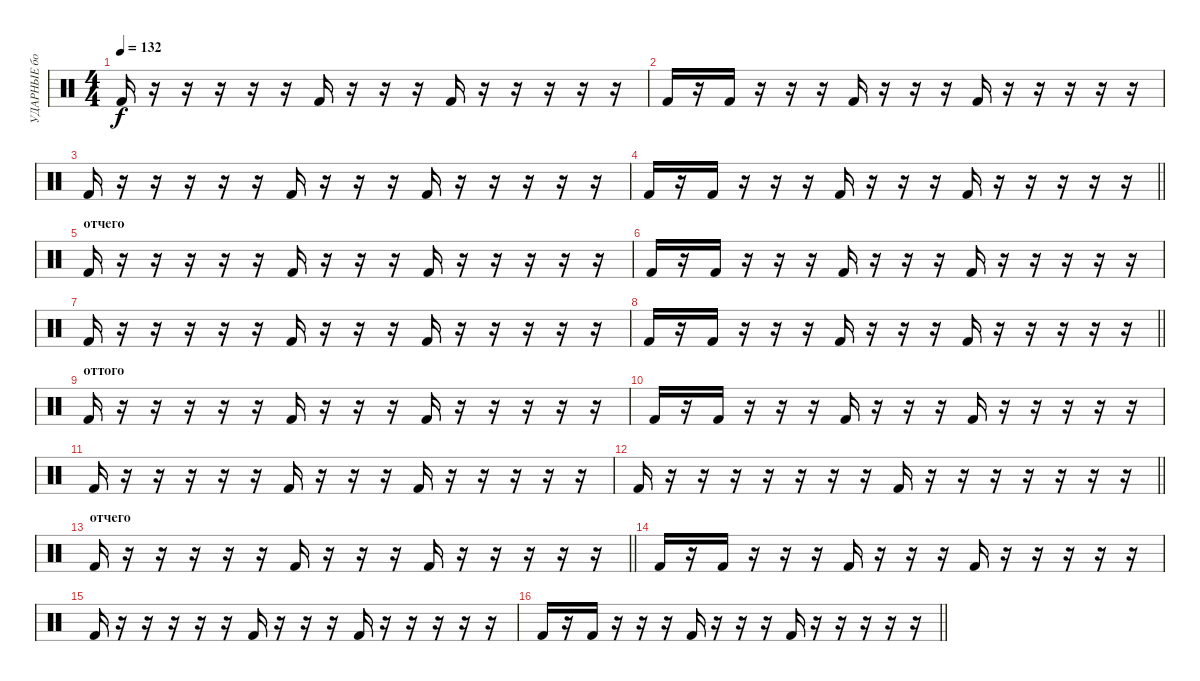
\track ("УДАРНЫЕ бочка" "УДАРНЫЕ бо") {instrument percussion}
\staff {score}
\articulation defaults
\ts (4 4)
\tempo 132
\clef neutral
\ks c "Kick (hit) 2".16{dy f}
r.16 r.16 r.16 r.16 r.16 "Kick (hit) 2".16 r.16 r.16 r.16 "Kick (hit) 2".16 r.16 r.16 r.16 r.16 r.16 |
"Kick (hit) 2".16 r.16 "Kick (hit) 2".16 r.16 r.16 r.16 "Kick (hit) 2".16 r.16 r.16 r.16 "Kick (hit) 2".16 r.16 r.16 r.16 r.16 r.16 |
"Kick (hit) 2".16 r.16 r.16 r.16 r.16 r.16 "Kick (hit) 2".16 r.16 r.16 r.16 "Kick (hit) 2".16 r.16 r.16 r.16 r.16 r.16 |
\barLineRight lightlight "Kick (hit) 2".16
r.16 "Kick (hit) 2".16 r.16 r.16 r.16 "Kick (hit) 2".16 r.16 r.16 r.16 "Kick (hit) 2".16 r.16 r.16 r.16 r.16 r.16 |
\section ("" "отчего")
"Kick (hit) 2".16 r.16 r.16 r.16 r.16 r.16 "Kick (hit) 2".16 r.16 r.16 r.16 "Kick (hit) 2".16 r.16 r.16 r.16 r.16 r.16 |
"Kick (hit) 2".16 r.16 "Kick (hit) 2".16 r.16 r.16 r.16 "Kick (hit) 2".16 r.16 r.16 r.16 "Kick (hit) 2".16 r.16 r.16 r.16 r.16 r.16 |
"Kick (hit) 2".16 r.16 r.16 r.16 r.16 r.16 "Kick (hit) 2".16 r.16 r.16 r.16 "Kick (hit) 2".16 r.16 r.16 r.16 r.16 r.16 |
\barLineRight lightlight "Kick (hit) 2".16
r.16 "Kick (hit) 2".16 r.16 r.16 r.16 "Kick (hit) 2".16 r.16 r.16 r.16 "Kick (hit) 2".16 r.16 r.16 r.16 r.16 r.16 |
\section ("" "оттого")
"Kick (hit) 2".16 r.16 r.16 r.16 r.16 r.16 "Kick (hit) 2".16 r.16 r.16 r.16 "Kick (hit) 2".16 r.16 r.16 r.16 r.16 r.16 |
"Kick (hit) 2".16 r.16 "Kick (hit) 2".16 r.16 r.16 r.16 "Kick (hit) 2".16 r.16 r.16 r.16 "Kick (hit) 2".16 r.16 r.16 r.16 r.16 r.16 |
"Kick (hit) 2".16 r.16 r.16 r.16 r.16 r.16 "Kick (hit) 2".16 r.16 r.16 r.16 "Kick (hit) 2".16 r.16 r.16 r.16 r.16 r.16 |
\barLineRight lightlight "Kick (hit) 2".16
r.16 r.16 r.16 r.16 r.16 r.16 r.16 "Kick (hit) 2".16 r.16 r.16 r.16 r.16 r.16 r.16 r.16 |
\section ("" "отчего")
\barLineRight lightlight "Kick (hit) 2".16
r.16 r.16 r.16 r.16 r.16 "Kick (hit) 2".16 r.16 r.16 r.16 "Kick (hit) 2".16 r.16 r.16 r.16 r.16 r.16 |
"Kick (hit) 2".16 r.16 "Kick (hit) 2".16 r.16 r.16 r.16 "Kick (hit) 2".16 r.16 r.16 r.16 "Kick (hit) 2".16 r.16 r.16 r.16 r.16 r.16 |
"Kick (hit) 2".16 r.16 r.16 r.16 r.16 r.16 "Kick (hit) 2".16 r.16 r.16 r.16 "Kick (hit) 2".16 r.16 r.16 r.16 r.16 r.16 |
\barLineRight lightlight "Kick (hit) 2".16
r.16 "Kick (hit) 2".16 r.16 r.16 r.16 "Kick (hit) 2".16 r.16 r.16 r.16 "Kick (hit) 2".16 r.16 r.16 r.16 r.16 r.16
